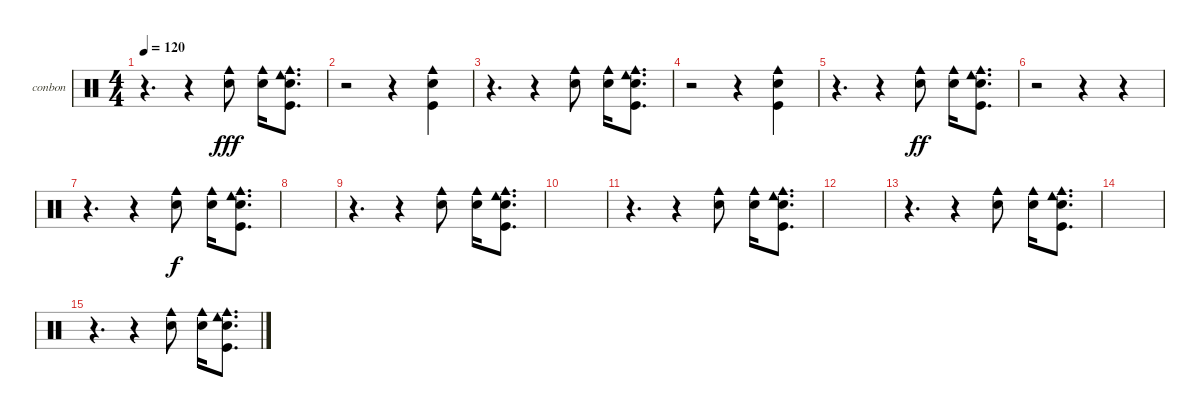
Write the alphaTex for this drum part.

\defaultSystemsLayout 4
\bracketExtendMode groupsimilarinstruments
\firstSystemTrackNameOrientation horizontal
\otherSystemsTrackNameOrientation horizontal
\track ("Bongos N Congas" "conbon") {instrument percussion}
\staff {score}
\articulation defaults
\ts (4 4)
\tempo 120
\clef neutral
\scale
0.333333
\ks c
r.4{d dy fff} r.4 ("Cowbell medium (hit)" "Snare (hit) 2").8 ("Cowbell medium (hit)" "Snare (hit) 2").16 ("Kick (hit)" "Cowbell medium (hit)" "Cowbell low (hit)" "Snare (hit) 2").8{d} |
\scale
0.333333 r.2 r.4 ("Snare (hit) 2" "Kick (hit)" "Cowbell medium (hit)").4 |
\scale
0.333333 r.4{d} r.4 ("Cowbell medium (hit)" "Snare (hit) 2").8 ("Cowbell medium (hit)" "Snare (hit) 2").16 ("Kick (hit)" "Cowbell medium (hit)" "Cowbell low (hit)" "Snare (hit) 2").8{d} |
\scale
0.333333 r.2 r.4 ("Snare (hit) 2" "Kick (hit)" "Cowbell medium (hit)").4 |
\scale
0.333333 r.4{d} r.4 ("Cowbell medium (hit)" "Snare (hit) 2").8{dy ff} ("Cowbell medium (hit)" "Snare (hit) 2").16 ("Kick (hit)" "Cowbell medium (hit)" "Cowbell low (hit)" "Snare (hit) 2").8{d} |
\scale
0.333333 r.2 r.4 r.4 |
\scale
0.333333 r.4{d} r.4 ("Cowbell medium (hit)" "Snare (hit) 2").8{dy f} ("Cowbell medium (hit)" "Snare (hit) 2").16 ("Kick (hit)" "Cowbell medium (hit)" "Cowbell low (hit)" "Snare (hit) 2").8{d} |
\scale
0.333333 |
\scale
0.333333 r.4{d} r.4 ("Cowbell medium (hit)" "Snare (hit) 2").8 ("Cowbell medium (hit)" "Snare (hit) 2").16 ("Kick (hit)" "Cowbell medium (hit)" "Cowbell low (hit)" "Snare (hit) 2").8{d} |
\scale
0.333333 |
\scale
0.333333 r.4{d} r.4 ("Cowbell medium (hit)" "Snare (hit) 2").8 ("Cowbell medium (hit)" "Snare (hit) 2").16 ("Kick (hit)" "Cowbell medium (hit)" "Cowbell low (hit)" "Snare (hit) 2").8{d} |
\scale
0.333333 |
\scale
0.333333 r.4{d} r.4 ("Cowbell medium (hit)" "Snare (hit) 2").8 ("Cowbell medium (hit)" "Snare (hit) 2").16 ("Kick (hit)" "Cowbell medium (hit)" "Cowbell low (hit)" "Snare (hit) 2").8{d} |
\scale
0.333333 |
\scale
0.333333 r.4{d} r.4 ("Cowbell medium (hit)" "Snare (hit) 2").8 ("Cowbell medium (hit)" "Snare (hit) 2").16 ("Kick (hit)" "Cowbell medium (hit)" "Cowbell low (hit)" "Snare (hit) 2").8{d} |
\scale
0.333333
